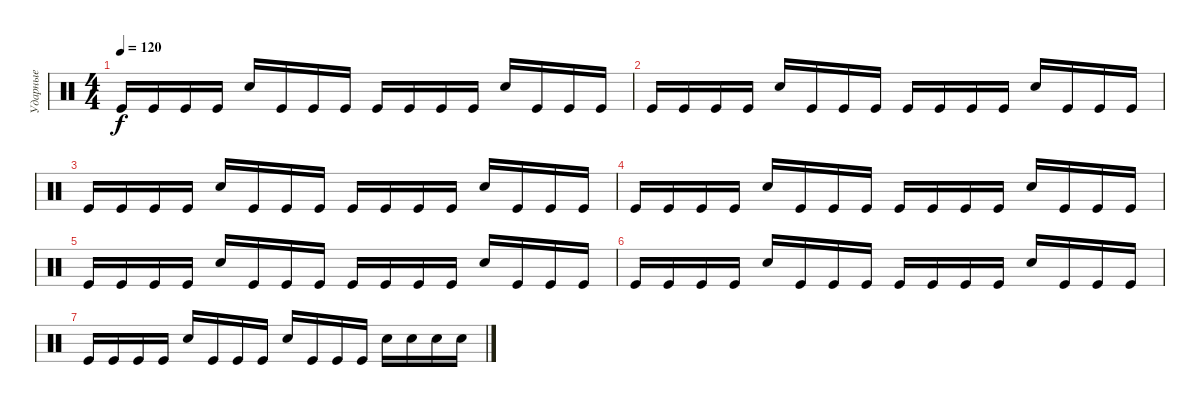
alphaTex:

\track ("Ударные" "Ударные") {instrument percussion}
\staff {score}
\articulation defaults
\ts (4 4)
\tempo 120
\clef neutral
\ks c "Kick (hit)".16{dy f} "Kick (hit)".16 "Kick (hit)".16 "Kick (hit)".16 "Snare (hit) 2".16 "Kick (hit)".16 "Kick (hit)".16 "Kick (hit)".16 "Kick (hit)".16 "Kick (hit)".16 "Kick (hit)".16 "Kick (hit)".16 "Snare (hit) 2".16 "Kick (hit)".16 "Kick (hit)".16 "Kick (hit)".16
|
"Kick (hit)".16 "Kick (hit)".16 "Kick (hit)".16 "Kick (hit)".16 "Snare (hit) 2".16 "Kick (hit)".16 "Kick (hit)".16 "Kick (hit)".16 "Kick (hit)".16 "Kick (hit)".16 "Kick (hit)".16 "Kick (hit)".16 "Snare (hit) 2".16 "Kick (hit)".16 "Kick (hit)".16 "Kick (hit)".16 |
"Kick (hit)".16 "Kick (hit)".16 "Kick (hit)".16 "Kick (hit)".16 "Snare (hit) 2".16 "Kick (hit)".16 "Kick (hit)".16 "Kick (hit)".16 "Kick (hit)".16 "Kick (hit)".16 "Kick (hit)".16 "Kick (hit)".16 "Snare (hit) 2".16 "Kick (hit)".16 "Kick (hit)".16 "Kick (hit)".16 |
"Kick (hit)".16 "Kick (hit)".16 "Kick (hit)".16 "Kick (hit)".16 "Snare (hit) 2".16 "Kick (hit)".16 "Kick (hit)".16 "Kick (hit)".16 "Kick (hit)".16 "Kick (hit)".16 "Kick (hit)".16 "Kick (hit)".16 "Snare (hit) 2".16 "Kick (hit)".16 "Kick (hit)".16 "Kick (hit)".16 |
"Kick (hit)".16 "Kick (hit)".16 "Kick (hit)".16 "Kick (hit)".16 "Snare (hit) 2".16 "Kick (hit)".16 "Kick (hit)".16 "Kick (hit)".16 "Kick (hit)".16 "Kick (hit)".16 "Kick (hit)".16 "Kick (hit)".16 "Snare (hit) 2".16 "Kick (hit)".16 "Kick (hit)".16 "Kick (hit)".16 |
"Kick (hit)".16 "Kick (hit)".16 "Kick (hit)".16 "Kick (hit)".16 "Snare (hit) 2".16 "Kick (hit)".16 "Kick (hit)".16 "Kick (hit)".16 "Kick (hit)".16 "Kick (hit)".16 "Kick (hit)".16 "Kick (hit)".16 "Snare (hit) 2".16 "Kick (hit)".16 "Kick (hit)".16 "Kick (hit)".16 |
"Kick (hit)".16 "Kick (hit)".16 "Kick (hit)".16 "Kick (hit)".16 "Snare (hit) 2".16 "Kick (hit)".16 "Kick (hit)".16 "Kick (hit)".16 "Snare (hit) 2".16 "Kick (hit)".16 "Kick (hit)".16 "Kick (hit)".16 "Snare (hit) 2".16 "Snare (hit) 2".16 "Snare (hit) 2".16 "Snare (hit) 2".16
